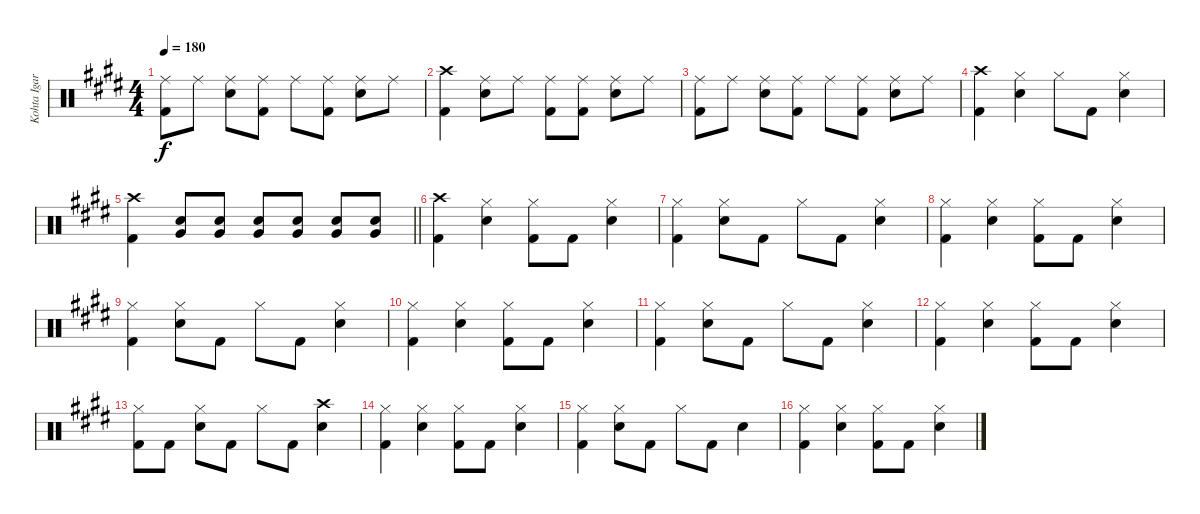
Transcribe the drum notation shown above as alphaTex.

\track ("Kohta Igarashi" "Kohta Igar") {instrument percussion}
\staff {score}
\articulation defaults
\ts (4 4)
\tempo 180
\clef neutral
\ks e
("Ride (middle)" "Kick (hit) 2").8{dy f} "Ride (middle)".8 ("Ride (middle)" "Electric Snare (hit)").8 ("Ride (middle)" "Kick (hit) 2").8 "Ride (middle)".8 ("Ride (middle)" "Kick (hit) 2").8 ("Ride (middle)" "Electric Snare (hit)").8 "Ride (middle)".8 |
("Crash high (hit)" "Kick (hit) 2").4 ("Ride (middle)" "Electric Snare (hit)").8 "Ride (middle)".8 ("Ride (middle)" "Kick (hit) 2").8 ("Ride (middle)" "Kick (hit) 2").8 ("Ride (middle)" "Electric Snare (hit)").8 "Ride (middle)".8 |
("Ride (middle)" "Kick (hit) 2").8 "Ride (middle)".8 ("Ride (middle)" "Electric Snare (hit)").8 ("Ride (middle)" "Kick (hit) 2").8 "Ride (middle)".8 ("Ride (middle)" "Kick (hit) 2").8 ("Ride (middle)" "Electric Snare (hit)").8 "Ride (middle)".8 |
("Crash high (hit)" "Kick (hit) 2").4 ("Hi-Hat (closed)" "Electric Snare (hit)").4 "Hi-Hat (closed)".8 "Kick (hit) 2".8 ("Hi-Hat (closed)" "Electric Snare (hit)").4 |
\barLineRight lightlight
("Crash high (hit)" "Kick (hit) 2").4 ("Electric Snare (hit)" "Very Low Tom (hit)").8 ("Electric Snare (hit)" "Very Low Tom (hit)").8 ("Electric Snare (hit)" "Very Low Tom (hit)").8 ("Electric Snare (hit)" "Very Low Tom (hit)").8 ("Electric Snare (hit)" "Very Low Tom (hit)").8 ("Electric Snare (hit)" "Very Low Tom (hit)").8 |
("Crash high (hit)" "Kick (hit) 2").4 ("Hi-Hat (closed)" "Electric Snare (hit)").4 ("Hi-Hat (closed)" "Kick (hit) 2").8 "Kick (hit) 2".8 ("Hi-Hat (closed)" "Electric Snare (hit)").4 |
("Hi-Hat (closed)" "Kick (hit) 2").4 ("Hi-Hat (closed)" "Electric Snare (hit)").8 "Kick (hit) 2".8 "Hi-Hat (closed)".8 "Kick (hit) 2".8 ("Hi-Hat (closed)" "Electric Snare (hit)").4 |
("Hi-Hat (closed)" "Kick (hit) 2").4 ("Hi-Hat (closed)" "Electric Snare (hit)").4 ("Hi-Hat (closed)" "Kick (hit) 2").8 "Kick (hit) 2".8 ("Hi-Hat (closed)" "Electric Snare (hit)").4 |
("Hi-Hat (closed)" "Kick (hit) 2").4 ("Hi-Hat (closed)" "Electric Snare (hit)").8 "Kick (hit) 2".8 "Hi-Hat (closed)".8 "Kick (hit) 2".8 ("Hi-Hat (closed)" "Electric Snare (hit)").4 |
("Hi-Hat (closed)" "Kick (hit) 2").4 ("Hi-Hat (closed)" "Electric Snare (hit)").4 ("Hi-Hat (closed)" "Kick (hit) 2").8 "Kick (hit) 2".8 ("Hi-Hat (closed)" "Electric Snare (hit)").4 |
("Hi-Hat (closed)" "Kick (hit) 2").4 ("Hi-Hat (closed)" "Electric Snare (hit)").8 "Kick (hit) 2".8 "Hi-Hat (closed)".8 "Kick (hit) 2".8 ("Hi-Hat (closed)" "Electric Snare (hit)").4 |
("Hi-Hat (closed)" "Kick (hit) 2").4 ("Hi-Hat (closed)" "Electric Snare (hit)").4 ("Hi-Hat (closed)" "Kick (hit) 2").8 "Kick (hit) 2".8 ("Hi-Hat (closed)" "Electric Snare (hit)").4 |
("Hi-Hat (closed)" "Kick (hit) 2").8 "Kick (hit) 2".8 ("Hi-Hat (closed)" "Electric Snare (hit)").8 "Kick (hit) 2".8 "Hi-Hat (closed)".8 "Kick (hit) 2".8 ("Crash high (hit)" "Electric Snare (hit)").4 |
("Hi-Hat (closed)" "Kick (hit) 2").4 ("Hi-Hat (closed)" "Electric Snare (hit)").4 ("Hi-Hat (closed)" "Kick (hit) 2").8 "Kick (hit) 2".8 ("Hi-Hat (closed)" "Electric Snare (hit)").4 |
("Hi-Hat (closed)" "Kick (hit) 2").4 ("Hi-Hat (closed)" "Electric Snare (hit)").8 "Kick (hit) 2".8 "Hi-Hat (closed)".8 "Kick (hit) 2".8 "Electric Snare (hit)".4 |
("Hi-Hat (closed)" "Kick (hit) 2").4 ("Hi-Hat (closed)" "Electric Snare (hit)").4 ("Hi-Hat (closed)" "Kick (hit) 2").8 "Kick (hit) 2".8 ("Hi-Hat (closed)" "Electric Snare (hit)").4
